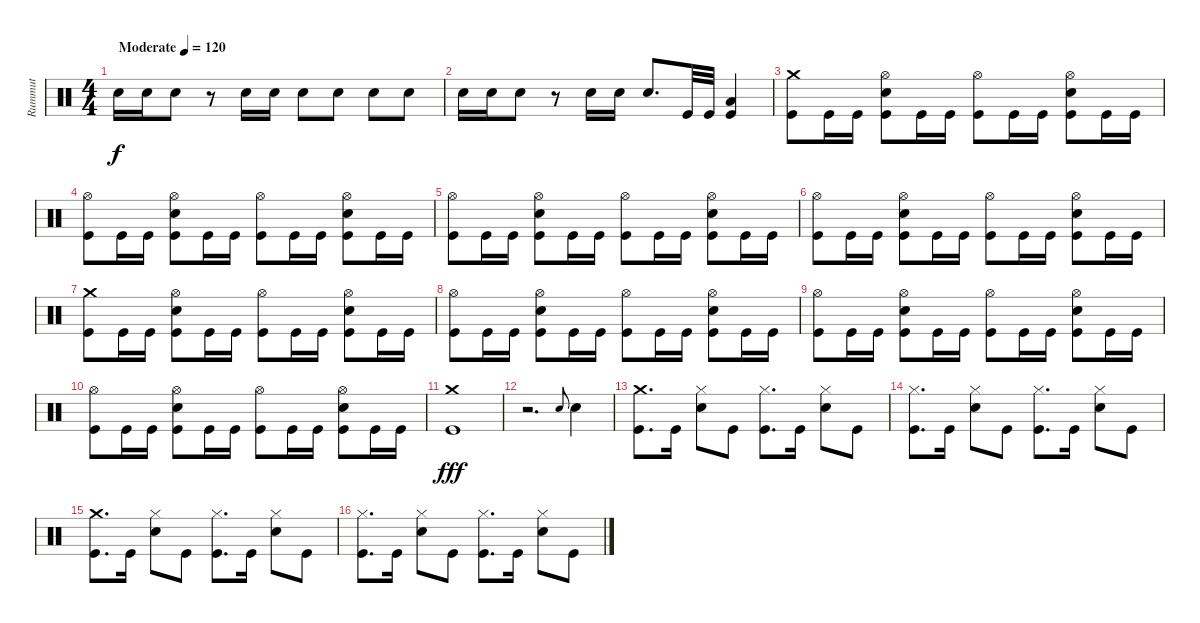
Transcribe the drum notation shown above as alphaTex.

\track ("Rummut" "Rummut") {instrument percussion}
\staff {score}
\articulation defaults
\ts (4 4)
\tempo (120 "Moderate")
\clef neutral
\ks c "Snare (hit) 2".16{dy f} "Snare (hit) 2".16 "Snare (hit) 2".8
r.8 "Snare (hit) 2".16 "Snare (hit) 2".16 "Snare (hit) 2".8 "Snare (hit) 2".8 "Snare (hit) 2".8 "Snare (hit) 2".8 |
"Snare (hit) 2".16 "Snare (hit) 2".16 "Snare (hit) 2".8 r.8 "Snare (hit) 2".16 "Snare (hit) 2".16 "Snare (hit) 2".8{d} "Kick (hit)".32 "Kick (hit)".32 ("Kick (hit)" "Low Tom (hit)").4 |
("Crash medium (hit)" "Kick (hit)").8 "Kick (hit)".16 "Kick (hit)".16 ("Hi-Hat (open)" "Snare (hit) 2" "Kick (hit)").8 "Kick (hit)".16 "Kick (hit)".16 ("Hi-Hat (open)" "Kick (hit)").8 "Kick (hit)".16 "Kick (hit)".16 ("Hi-Hat (open)" "Snare (hit) 2" "Kick (hit)").8 "Kick (hit)".16 "Kick (hit)".16 |
("Hi-Hat (open)" "Kick (hit)").8 "Kick (hit)".16 "Kick (hit)".16 ("Hi-Hat (open)" "Snare (hit) 2" "Kick (hit)").8 "Kick (hit)".16 "Kick (hit)".16 ("Hi-Hat (open)" "Kick (hit)").8 "Kick (hit)".16 "Kick (hit)".16 ("Hi-Hat (open)" "Snare (hit) 2" "Kick (hit)").8 "Kick (hit)".16 "Kick (hit)".16 |
("Hi-Hat (open)" "Kick (hit)").8 "Kick (hit)".16 "Kick (hit)".16 ("Hi-Hat (open)" "Snare (hit) 2" "Kick (hit)").8 "Kick (hit)".16 "Kick (hit)".16 ("Hi-Hat (open)" "Kick (hit)").8 "Kick (hit)".16 "Kick (hit)".16 ("Hi-Hat (open)" "Snare (hit) 2" "Kick (hit)").8 "Kick (hit)".16 "Kick (hit)".16 |
("Hi-Hat (open)" "Kick (hit)").8 "Kick (hit)".16 "Kick (hit)".16 ("Hi-Hat (open)" "Snare (hit) 2" "Kick (hit)").8 "Kick (hit)".16 "Kick (hit)".16 ("Hi-Hat (open)" "Kick (hit)").8 "Kick (hit)".16 "Kick (hit)".16 ("Hi-Hat (open)" "Snare (hit) 2" "Kick (hit)").8 "Kick (hit)".16 "Kick (hit)".16 |
("Crash medium (hit)" "Kick (hit)").8 "Kick (hit)".16 "Kick (hit)".16 ("Hi-Hat (open)" "Snare (hit) 2" "Kick (hit)").8 "Kick (hit)".16 "Kick (hit)".16 ("Hi-Hat (open)" "Kick (hit)").8 "Kick (hit)".16 "Kick (hit)".16 ("Hi-Hat (open)" "Snare (hit) 2" "Kick (hit)").8 "Kick (hit)".16 "Kick (hit)".16 |
("Hi-Hat (open)" "Kick (hit)").8 "Kick (hit)".16 "Kick (hit)".16 ("Hi-Hat (open)" "Snare (hit) 2" "Kick (hit)").8 "Kick (hit)".16 "Kick (hit)".16 ("Hi-Hat (open)" "Kick (hit)").8 "Kick (hit)".16 "Kick (hit)".16 ("Hi-Hat (open)" "Snare (hit) 2" "Kick (hit)").8 "Kick (hit)".16 "Kick (hit)".16 |
("Hi-Hat (open)" "Kick (hit)").8 "Kick (hit)".16 "Kick (hit)".16 ("Hi-Hat (open)" "Snare (hit) 2" "Kick (hit)").8 "Kick (hit)".16 "Kick (hit)".16 ("Hi-Hat (open)" "Kick (hit)").8 "Kick (hit)".16 "Kick (hit)".16 ("Hi-Hat (open)" "Snare (hit) 2" "Kick (hit)").8 "Kick (hit)".16 "Kick (hit)".16 |
("Hi-Hat (open)" "Kick (hit)").8 "Kick (hit)".16 "Kick (hit)".16 ("Hi-Hat (open)" "Snare (hit) 2" "Kick (hit)").8 "Kick (hit)".16 "Kick (hit)".16 ("Hi-Hat (open)" "Kick (hit)").8 "Kick (hit)".16 "Kick (hit)".16 ("Hi-Hat (open)" "Snare (hit) 2" "Kick (hit)").8 "Kick (hit)".16 "Kick (hit)".16 |
("Crash medium (hit)" "Kick (hit)").1{dy fff} |
r.2{d} "Snare (hit) 2".8{gr onbeat} "Snare (hit) 2".4 |
("Crash medium (hit)" "Kick (hit)").8{d} "Kick (hit)".16 ("Hi-Hat (closed)" "Snare (hit) 2").8 "Kick (hit)".8 ("Hi-Hat (closed)" "Kick (hit)").8{d} "Kick (hit)".16 ("Hi-Hat (closed)" "Snare (hit) 2").8 "Kick (hit)".8 |
("Hi-Hat (closed)" "Kick (hit)").8{d} "Kick (hit)".16 ("Hi-Hat (closed)" "Snare (hit) 2").8 "Kick (hit)".8 ("Hi-Hat (closed)" "Kick (hit)").8{d} "Kick (hit)".16 ("Hi-Hat (closed)" "Snare (hit) 2").8 "Kick (hit)".8 |
("Crash medium (hit)" "Kick (hit)").8{d} "Kick (hit)".16 ("Hi-Hat (closed)" "Snare (hit) 2").8 "Kick (hit)".8 ("Hi-Hat (closed)" "Kick (hit)").8{d} "Kick (hit)".16 ("Hi-Hat (closed)" "Snare (hit) 2").8 "Kick (hit)".8 |
("Hi-Hat (closed)" "Kick (hit)").8{d} "Kick (hit)".16 ("Hi-Hat (closed)" "Snare (hit) 2").8 "Kick (hit)".8 ("Hi-Hat (closed)" "Kick (hit)").8{d} "Kick (hit)".16 ("Hi-Hat (closed)" "Snare (hit) 2").8 "Kick (hit)".8
